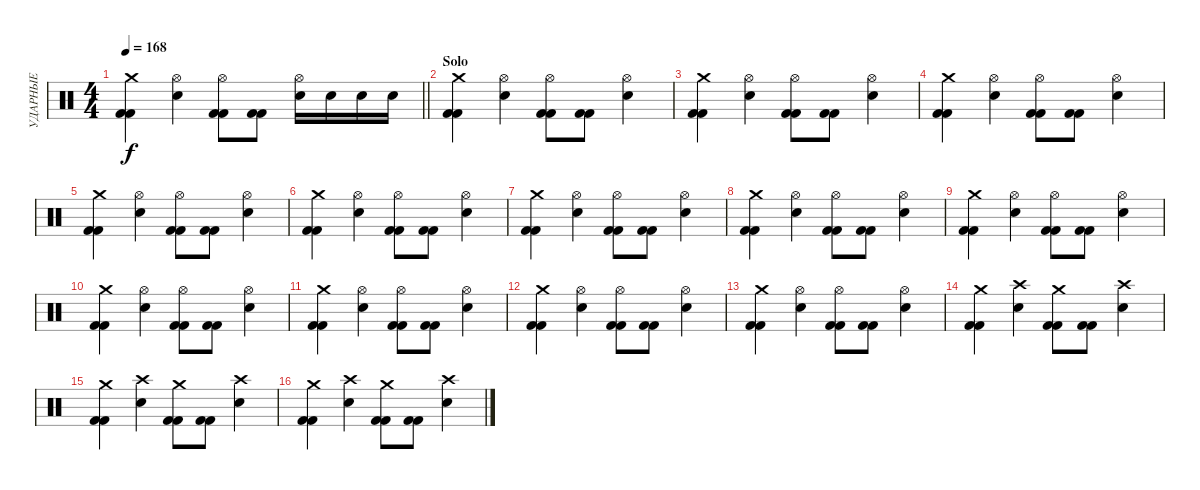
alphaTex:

\track ("УДАРНЫЕ" "УДАРНЫЕ") {instrument percussion}
\staff {score}
\articulation defaults
\ts (4 4)
\tempo 168
\clef neutral
\barLineRight lightlight
\ks c
("Crash medium (hit)" "Kick (hit) 2" "Kick (hit) 2").4{dy f} ("Hi-Hat (open)" "Snare (hit) 2").4 ("Hi-Hat (open)" "Kick (hit) 2" "Kick (hit) 2").8 ("Kick (hit) 2" "Kick (hit) 2").8 ("Hi-Hat (open)" "Snare (hit) 2").16 "Snare (hit) 2".16 "Snare (hit) 2".16 "Snare (hit) 2".16 |
\section ("" "Solo")
("Crash medium (hit)" "Kick (hit) 2" "Kick (hit) 2").4 ("Hi-Hat (open)" "Snare (hit) 2").4 ("Hi-Hat (open)" "Kick (hit) 2" "Kick (hit) 2").8 ("Kick (hit) 2" "Kick (hit) 2").8 ("Hi-Hat (open)" "Snare (hit) 2").4 |
("Crash medium (hit)" "Kick (hit) 2" "Kick (hit) 2").4 ("Hi-Hat (open)" "Snare (hit) 2").4 ("Hi-Hat (open)" "Kick (hit) 2" "Kick (hit) 2").8 ("Kick (hit) 2" "Kick (hit) 2").8 ("Hi-Hat (open)" "Snare (hit) 2").4 |
("Crash medium (hit)" "Kick (hit) 2" "Kick (hit) 2").4 ("Hi-Hat (open)" "Snare (hit) 2").4 ("Hi-Hat (open)" "Kick (hit) 2" "Kick (hit) 2").8 ("Kick (hit) 2" "Kick (hit) 2").8 ("Hi-Hat (open)" "Snare (hit) 2").4 |
("Crash medium (hit)" "Kick (hit) 2" "Kick (hit) 2").4 ("Hi-Hat (open)" "Snare (hit) 2").4 ("Hi-Hat (open)" "Kick (hit) 2" "Kick (hit) 2").8 ("Kick (hit) 2" "Kick (hit) 2").8 ("Hi-Hat (open)" "Snare (hit) 2").4 |
("Crash medium (hit)" "Kick (hit) 2" "Kick (hit) 2").4 ("Hi-Hat (open)" "Snare (hit) 2").4 ("Hi-Hat (open)" "Kick (hit) 2" "Kick (hit) 2").8 ("Kick (hit) 2" "Kick (hit) 2").8 ("Hi-Hat (open)" "Snare (hit) 2").4 |
("Crash medium (hit)" "Kick (hit) 2" "Kick (hit) 2").4 ("Hi-Hat (open)" "Snare (hit) 2").4 ("Hi-Hat (open)" "Kick (hit) 2" "Kick (hit) 2").8 ("Kick (hit) 2" "Kick (hit) 2").8 ("Hi-Hat (open)" "Snare (hit) 2").4 |
("Crash medium (hit)" "Kick (hit) 2" "Kick (hit) 2").4 ("Hi-Hat (open)" "Snare (hit) 2").4 ("Hi-Hat (open)" "Kick (hit) 2" "Kick (hit) 2").8 ("Kick (hit) 2" "Kick (hit) 2").8 ("Hi-Hat (open)" "Snare (hit) 2").4 |
("Crash medium (hit)" "Kick (hit) 2" "Kick (hit) 2").4 ("Hi-Hat (open)" "Snare (hit) 2").4 ("Hi-Hat (open)" "Kick (hit) 2" "Kick (hit) 2").8 ("Kick (hit) 2" "Kick (hit) 2").8 ("Hi-Hat (open)" "Snare (hit) 2").4 |
("Crash medium (hit)" "Kick (hit) 2" "Kick (hit) 2").4 ("Hi-Hat (open)" "Snare (hit) 2").4 ("Hi-Hat (open)" "Kick (hit) 2" "Kick (hit) 2").8 ("Kick (hit) 2" "Kick (hit) 2").8 ("Hi-Hat (open)" "Snare (hit) 2").4 |
("Crash medium (hit)" "Kick (hit) 2" "Kick (hit) 2").4 ("Hi-Hat (open)" "Snare (hit) 2").4 ("Hi-Hat (open)" "Kick (hit) 2" "Kick (hit) 2").8 ("Kick (hit) 2" "Kick (hit) 2").8 ("Hi-Hat (open)" "Snare (hit) 2").4 |
("Crash medium (hit)" "Kick (hit) 2" "Kick (hit) 2").4 ("Hi-Hat (open)" "Snare (hit) 2").4 ("Hi-Hat (open)" "Kick (hit) 2" "Kick (hit) 2").8 ("Kick (hit) 2" "Kick (hit) 2").8 ("Hi-Hat (open)" "Snare (hit) 2").4 |
("Crash medium (hit)" "Kick (hit) 2" "Kick (hit) 2").4 ("Hi-Hat (open)" "Snare (hit) 2").4 ("Hi-Hat (open)" "Kick (hit) 2" "Kick (hit) 2").8 ("Kick (hit) 2" "Kick (hit) 2").8 ("Hi-Hat (open)" "Snare (hit) 2").4 |
("Crash medium (hit)" "Kick (hit) 2" "Kick (hit) 2").4 ("Crash high (hit)" "Snare (hit) 2").4 ("Crash medium (hit)" "Kick (hit) 2" "Kick (hit) 2").8 ("Kick (hit) 2" "Kick (hit) 2").8 ("Crash high (hit)" "Snare (hit) 2").4 |
("Crash medium (hit)" "Kick (hit) 2" "Kick (hit) 2").4 ("Crash high (hit)" "Snare (hit) 2").4 ("Crash medium (hit)" "Kick (hit) 2" "Kick (hit) 2").8 ("Kick (hit) 2" "Kick (hit) 2").8 ("Crash high (hit)" "Snare (hit) 2").4 |
("Crash medium (hit)" "Kick (hit) 2" "Kick (hit) 2").4 ("Crash high (hit)" "Snare (hit) 2").4 ("Crash medium (hit)" "Kick (hit) 2" "Kick (hit) 2").8 ("Kick (hit) 2" "Kick (hit) 2").8 ("Crash high (hit)" "Snare (hit) 2").4
